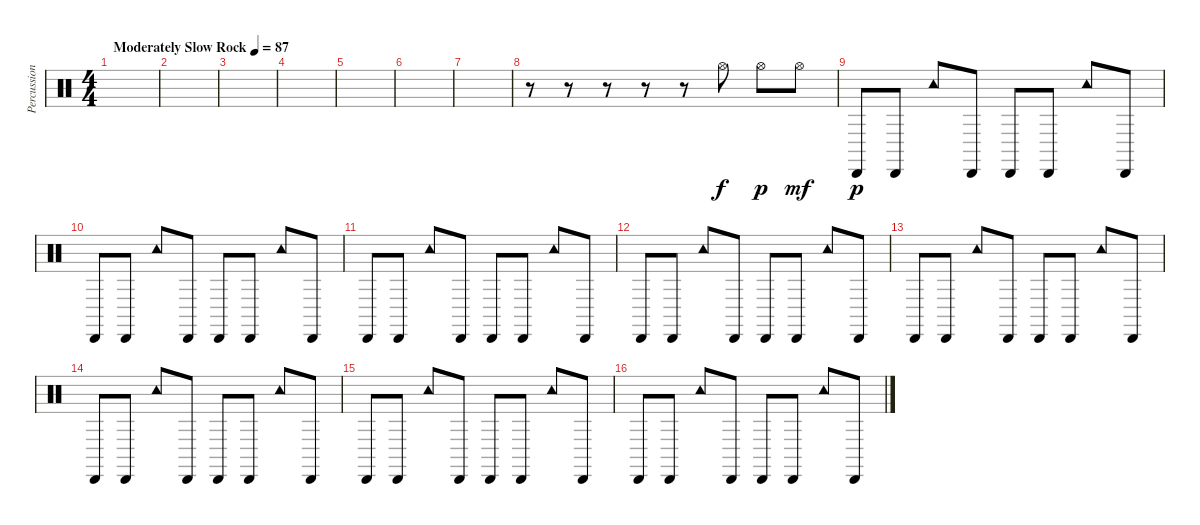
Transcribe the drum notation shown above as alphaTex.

\track ("Percussion" "Percussion") {instrument percussion}
\staff {score}
\articulation defaults
\ts (4 4)
\tempo (87 "Moderately Slow Rock")
\clef neutral
\ks c
|
|
|
|
|
|
|
r.8 r.8 r.8 r.8 r.8 "Hi-Hat (open)".8 "Hi-Hat (open)".8{dy p} "Hi-Hat (open)".8{dy mf} |
"Cabasa (hit)".8{dy p} "Cabasa (hit)".8 "Tambourine (hit)".8 "Cabasa (hit)".8 "Cabasa (hit)".8 "Cabasa (hit)".8 "Tambourine (hit)".8 "Cabasa (hit)".8 |
"Cabasa (hit)".8 "Cabasa (hit)".8 "Tambourine (hit)".8 "Cabasa (hit)".8 "Cabasa (hit)".8 "Cabasa (hit)".8 "Tambourine (hit)".8 "Cabasa (hit)".8 |
"Cabasa (hit)".8 "Cabasa (hit)".8 "Tambourine (hit)".8 "Cabasa (hit)".8 "Cabasa (hit)".8 "Cabasa (hit)".8 "Tambourine (hit)".8 "Cabasa (hit)".8 |
"Cabasa (hit)".8 "Cabasa (hit)".8 "Tambourine (hit)".8 "Cabasa (hit)".8 "Cabasa (hit)".8 "Cabasa (hit)".8 "Tambourine (hit)".8 "Cabasa (hit)".8 |
"Cabasa (hit)".8 "Cabasa (hit)".8 "Tambourine (hit)".8 "Cabasa (hit)".8 "Cabasa (hit)".8 "Cabasa (hit)".8 "Tambourine (hit)".8 "Cabasa (hit)".8 |
"Cabasa (hit)".8 "Cabasa (hit)".8 "Tambourine (hit)".8 "Cabasa (hit)".8 "Cabasa (hit)".8 "Cabasa (hit)".8 "Tambourine (hit)".8 "Cabasa (hit)".8 |
"Cabasa (hit)".8 "Cabasa (hit)".8 "Tambourine (hit)".8 "Cabasa (hit)".8 "Cabasa (hit)".8 "Cabasa (hit)".8 "Tambourine (hit)".8 "Cabasa (hit)".8 |
"Cabasa (hit)".8 "Cabasa (hit)".8 "Tambourine (hit)".8 "Cabasa (hit)".8 "Cabasa (hit)".8 "Cabasa (hit)".8 "Tambourine (hit)".8 "Cabasa (hit)".8
